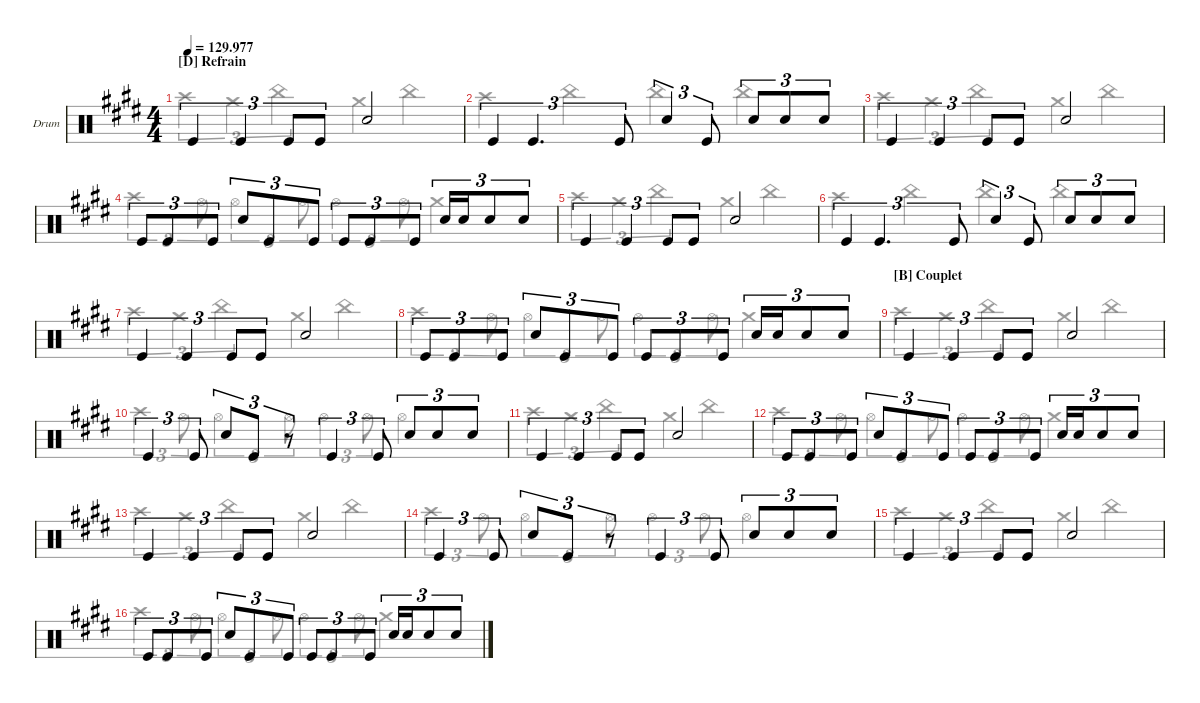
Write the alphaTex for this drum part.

\defaultSystemsLayout 4
\hideDynamics
\bracketExtendMode nobrackets
\firstSystemTrackNameOrientation horizontal
\otherSystemsTrackNameOrientation horizontal
\track ("BATTERIE" "Drum") {defaultSystemsLayout 4 instrument percussion}
\staff {score}
\articulation defaults
\voice
\ts (4 4)
\section ("D" "Refrain")
\tempo
129.977
\accidentals auto
\clef neutral
\ottava regular
\simile none
\ks e "Kick (hit)".4{tu (3 2) dy mf} "Kick (hit)".4{tu (3 2)} "Kick (hit)".8{tu (3 2)} "Kick (hit)".8{tu (3 2)} "Snare (hit) 2".2
|
"Kick (hit)".4{tu (3 2)} "Kick (hit)".4{d tu (3 2)} "Kick (hit)".8{tu (3 2)} "Snare (hit) 2".4{tu (3 2)} "Kick (hit)".8{tu (3 2)} "Snare (hit) 2".8{tu (3 2)} "Snare (hit) 2".8{tu (3 2)} "Snare (hit) 2".8{tu (3 2)} |
"Kick (hit)".4{tu (3 2)} "Kick (hit)".4{tu (3 2)} "Kick (hit)".8{tu (3 2)} "Kick (hit)".8{tu (3 2)} "Snare (hit) 2".2 |
"Kick (hit)".8{tu (3 2)} "Kick (hit)".8{tu (3 2)} "Kick (hit)".8{tu (3 2)} "Snare (hit) 2".8{tu (3 2)} "Kick (hit)".8{tu (3 2)} "Kick (hit)".8{tu (3 2)} "Kick (hit)".8{tu (3 2)} "Kick (hit)".8{tu (3 2)} "Kick (hit)".8{tu (3 2)} "Snare (hit) 2".16{tu (3 2)} "Snare (hit) 2".16{tu (3 2)} "Snare (hit) 2".8{tu (3 2)} "Snare (hit) 2".8{tu (3 2)} |
"Kick (hit)".4{tu (3 2)} "Kick (hit)".4{tu (3 2)} "Kick (hit)".8{tu (3 2)} "Kick (hit)".8{tu (3 2)} "Snare (hit) 2".2 |
"Kick (hit)".4{tu (3 2)} "Kick (hit)".4{d tu (3 2)} "Kick (hit)".8{tu (3 2)} "Snare (hit) 2".4{tu (3 2)} "Kick (hit)".8{tu (3 2)} "Snare (hit) 2".8{tu (3 2)} "Snare (hit) 2".8{tu (3 2)} "Snare (hit) 2".8{tu (3 2)} |
"Kick (hit)".4{tu (3 2)} "Kick (hit)".4{tu (3 2)} "Kick (hit)".8{tu (3 2)} "Kick (hit)".8{tu (3 2)} "Snare (hit) 2".2 |
"Kick (hit)".8{tu (3 2)} "Kick (hit)".8{tu (3 2)} "Kick (hit)".8{tu (3 2)} "Snare (hit) 2".8{tu (3 2)} "Kick (hit)".8{tu (3 2)} "Kick (hit)".8{tu (3 2)} "Kick (hit)".8{tu (3 2)} "Kick (hit)".8{tu (3 2)} "Kick (hit)".8{tu (3 2)} "Snare (hit) 2".16{tu (3 2)} "Snare (hit) 2".16{tu (3 2)} "Snare (hit) 2".8{tu (3 2)} "Snare (hit) 2".8{tu (3 2)} |
\section ("B" "Couplet")
"Kick (hit)".4{tu (3 2)} "Kick (hit)".4{tu (3 2)} "Kick (hit)".8{tu (3 2)} "Kick (hit)".8{tu (3 2)} "Snare (hit) 2".2 |
"Kick (hit)".4{tu (3 2)} "Kick (hit)".8{tu (3 2)} "Snare (hit) 2".8{tu (3 2)} "Kick (hit)".8{tu (3 2)} r.8{tu (3 2)} "Kick (hit)".4{tu (3 2)} "Kick (hit)".8{tu (3 2)} "Snare (hit) 2".8{tu (3 2)} "Snare (hit) 2".8{tu (3 2)} "Snare (hit) 2".8{tu (3 2)} |
"Kick (hit)".4{tu (3 2)} "Kick (hit)".4{tu (3 2)} "Kick (hit)".8{tu (3 2)} "Kick (hit)".8{tu (3 2)} "Snare (hit) 2".2 |
"Kick (hit)".8{tu (3 2)} "Kick (hit)".8{tu (3 2)} "Kick (hit)".8{tu (3 2)} "Snare (hit) 2".8{tu (3 2)} "Kick (hit)".8{tu (3 2)} "Kick (hit)".8{tu (3 2)} "Kick (hit)".8{tu (3 2)} "Kick (hit)".8{tu (3 2)} "Kick (hit)".8{tu (3 2)} "Snare (hit) 2".16{tu (3 2)} "Snare (hit) 2".16{tu (3 2)} "Snare (hit) 2".8{tu (3 2)} "Snare (hit) 2".8{tu (3 2)} |
"Kick (hit)".4{tu (3 2)} "Kick (hit)".4{tu (3 2)} "Kick (hit)".8{tu (3 2)} "Kick (hit)".8{tu (3 2)} "Snare (hit) 2".2 |
"Kick (hit)".4{tu (3 2)} "Kick (hit)".8{tu (3 2)} "Snare (hit) 2".8{tu (3 2)} "Kick (hit)".8{tu (3 2)} r.8{tu (3 2)} "Kick (hit)".4{tu (3 2)} "Kick (hit)".8{tu (3 2)} "Snare (hit) 2".8{tu (3 2)} "Snare (hit) 2".8{tu (3 2)} "Snare (hit) 2".8{tu (3 2)} |
"Kick (hit)".4{tu (3 2)} "Kick (hit)".4{tu (3 2)} "Kick (hit)".8{tu (3 2)} "Kick (hit)".8{tu (3 2)} "Snare (hit) 2".2 |
"Kick (hit)".8{tu (3 2)} "Kick (hit)".8{tu (3 2)} "Kick (hit)".8{tu (3 2)} "Snare (hit) 2".8{tu (3 2)} "Kick (hit)".8{tu (3 2)} "Kick (hit)".8{tu (3 2)} "Kick (hit)".8{tu (3 2)} "Kick (hit)".8{tu (3 2)} "Kick (hit)".8{tu (3 2)} "Snare (hit) 2".16{tu (3 2)} "Snare (hit) 2".16{tu (3 2)} "Snare (hit) 2".8{tu (3 2)} "Snare (hit) 2".8{tu (3 2)}
\voice
\clef neutral
\ottava regular
\simile none
\ks e "Crash high (hit)".4{tu (3 2) dy mf} "Crash medium (hit)".4{tu (3 2)} "China (hit)".4{tu (3 2)} "Crash medium (hit)".4 "China (hit)".4
|
"Crash high (hit)".4 "China (hit)".4 "China (hit)".4 "China (hit)".4 |
"Crash high (hit)".4{tu (3 2)} "Crash medium (hit)".4{tu (3 2)} "China (hit)".4{tu (3 2)} "Crash medium (hit)".4 "China (hit)".4 |
"Crash high (hit)".4{tu (3 2)} "Hi-Hat (open)".8{tu (3 2)} "Hi-Hat (open)".4{tu (3 2)} "Hi-Hat (open)".8{tu (3 2)} "Hi-Hat (open)".4{tu (3 2)} "Hi-Hat (open)".8{tu (3 2)} "Crash medium (hit)".4 |
"Crash high (hit)".4{tu (3 2)} "Crash medium (hit)".4{tu (3 2)} "China (hit)".4{tu (3 2)} "Crash medium (hit)".4 "China (hit)".4 |
"Crash high (hit)".4 "China (hit)".4 "China (hit)".4 "China (hit)".4 |
"Crash high (hit)".4{tu (3 2)} "Crash medium (hit)".4{tu (3 2)} "China (hit)".4{tu (3 2)} "Crash medium (hit)".4 "China (hit)".4 |
"Crash high (hit)".4{tu (3 2)} "Hi-Hat (open)".8{tu (3 2)} "Hi-Hat (open)".4{tu (3 2)} "Hi-Hat (open)".8{tu (3 2)} "Hi-Hat (open)".4{tu (3 2)} "Hi-Hat (open)".8{tu (3 2)} "Crash medium (hit)".4 |
"Crash high (hit)".4{tu (3 2)} "Crash medium (hit)".4{tu (3 2)} "China (hit)".4{tu (3 2)} "Crash medium (hit)".4 "China (hit)".4 |
"Crash high (hit)".4{tu (3 2)} "Hi-Hat (open)".8{tu (3 2)} "Hi-Hat (open)".4{tu (3 2)} "Hi-Hat (open)".8{tu (3 2)} "Hi-Hat (open)".4{tu (3 2)} "Hi-Hat (open)".8{tu (3 2)} "Hi-Hat (open)".4 |
"Crash high (hit)".4{tu (3 2)} "Crash medium (hit)".4{tu (3 2)} "China (hit)".4{tu (3 2)} "Crash medium (hit)".4 "China (hit)".4 |
"Crash high (hit)".4{tu (3 2)} "Hi-Hat (open)".8{tu (3 2)} "Hi-Hat (open)".4{tu (3 2)} "Hi-Hat (open)".8{tu (3 2)} "Hi-Hat (open)".4{tu (3 2)} "Hi-Hat (open)".8{tu (3 2)} "Crash medium (hit)".4 |
"Crash high (hit)".4{tu (3 2)} "Crash medium (hit)".4{tu (3 2)} "China (hit)".4{tu (3 2)} "Crash medium (hit)".4 "China (hit)".4 |
"Crash high (hit)".4{tu (3 2)} "Hi-Hat (open)".8{tu (3 2)} "Hi-Hat (open)".4{tu (3 2)} "Hi-Hat (open)".8{tu (3 2)} "Hi-Hat (open)".4{tu (3 2)} "Hi-Hat (open)".8{tu (3 2)} "Hi-Hat (open)".4 |
"Crash high (hit)".4{tu (3 2)} "Crash medium (hit)".4{tu (3 2)} "China (hit)".4{tu (3 2)} "Crash medium (hit)".4 "China (hit)".4 |
"Crash high (hit)".4{tu (3 2)} "Hi-Hat (open)".8{tu (3 2)} "Hi-Hat (open)".4{tu (3 2)} "Hi-Hat (open)".8{tu (3 2)} "Hi-Hat (open)".4{tu (3 2)} "Hi-Hat (open)".8{tu (3 2)} "Crash medium (hit)".4
